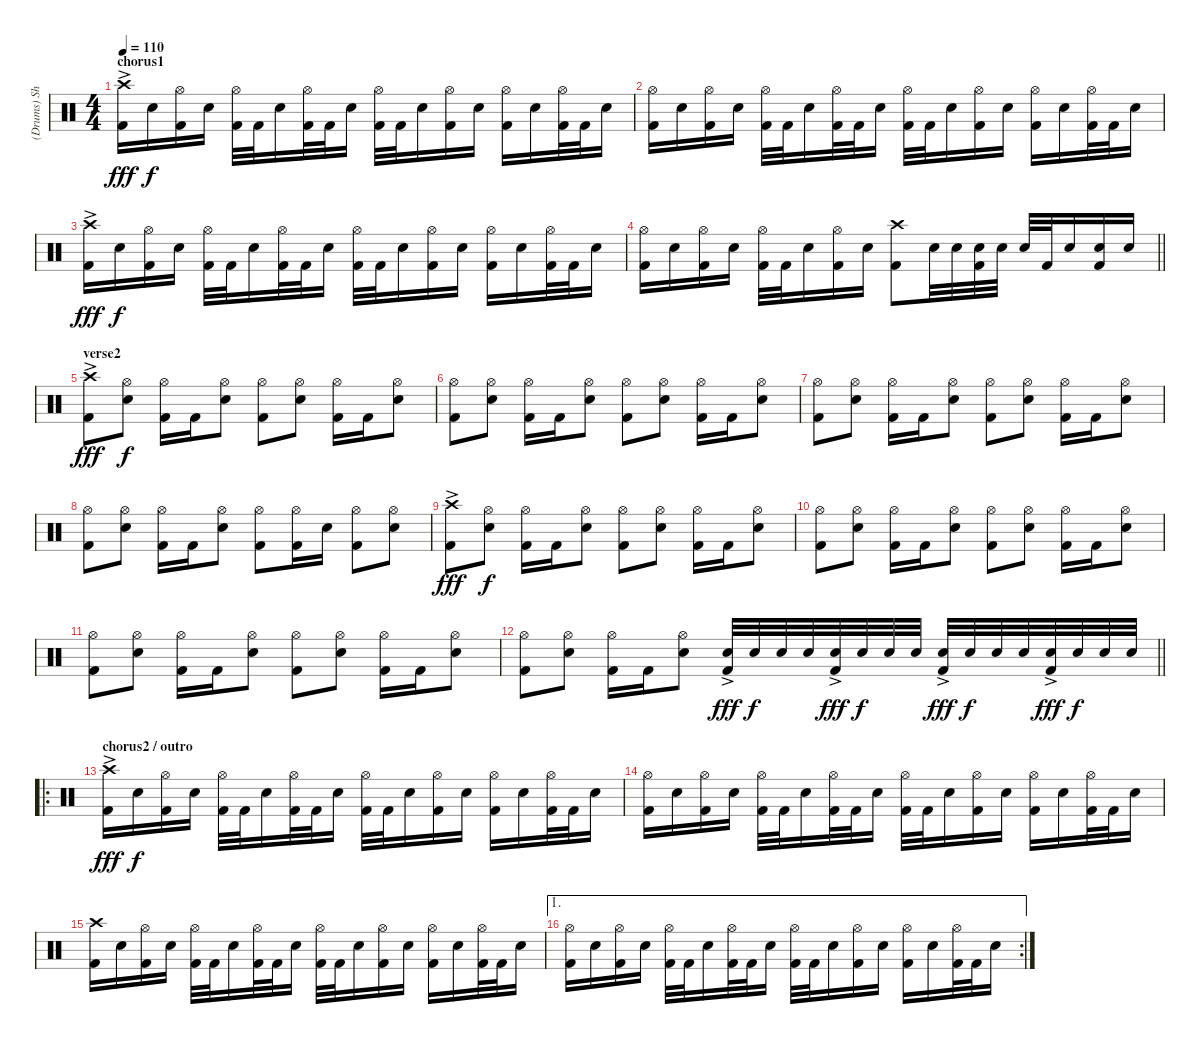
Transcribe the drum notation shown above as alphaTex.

\track ("(Drums) Shinya" "(Drums) Sh") {instrument percussion}
\staff {score}
\articulation defaults
\ts (4 4)
\section ("" "chorus1")
\tempo 110
\clef neutral
\ks c
("Crash high (hit)"{ac} "Kick (hit) 2").16{dy fff} "Snare (hit) 2".16{dy f} ("Hi-Hat (open)" "Kick (hit) 2").16 "Snare (hit) 2".16 ("Hi-Hat (open)" "Kick (hit) 2").32 "Kick (hit) 2".32 "Snare (hit) 2".16 ("Hi-Hat (open)" "Kick (hit) 2").32 "Kick (hit) 2".32 "Snare (hit) 2".16 ("Hi-Hat (open)" "Kick (hit) 2").32 "Kick (hit) 2".32 "Snare (hit) 2".16 ("Hi-Hat (open)" "Kick (hit) 2").16 "Snare (hit) 2".16 ("Hi-Hat (open)" "Kick (hit) 2").16 "Snare (hit) 2".16 ("Hi-Hat (open)" "Kick (hit) 2").32 "Kick (hit) 2".32 "Snare (hit) 2".16 |
("Hi-Hat (open)" "Kick (hit) 2").16 "Snare (hit) 2".16 ("Hi-Hat (open)" "Kick (hit) 2").16 "Snare (hit) 2".16 ("Hi-Hat (open)" "Kick (hit) 2").32 "Kick (hit) 2".32 "Snare (hit) 2".16 ("Hi-Hat (open)" "Kick (hit) 2").32 "Kick (hit) 2".32 "Snare (hit) 2".16 ("Hi-Hat (open)" "Kick (hit) 2").32 "Kick (hit) 2".32 "Snare (hit) 2".16 ("Hi-Hat (open)" "Kick (hit) 2").16 "Snare (hit) 2".16 ("Hi-Hat (open)" "Kick (hit) 2").16 "Snare (hit) 2".16 ("Hi-Hat (open)" "Kick (hit) 2").32 "Kick (hit) 2".32 "Snare (hit) 2".16 |
("Crash high (hit)"{ac} "Kick (hit) 2").16{dy fff} "Snare (hit) 2".16{dy f} ("Hi-Hat (open)" "Kick (hit) 2").16 "Snare (hit) 2".16 ("Hi-Hat (open)" "Kick (hit) 2").32 "Kick (hit) 2".32 "Snare (hit) 2".16 ("Hi-Hat (open)" "Kick (hit) 2").32 "Kick (hit) 2".32 "Snare (hit) 2".16 ("Hi-Hat (open)" "Kick (hit) 2").32 "Kick (hit) 2".32 "Snare (hit) 2".16 ("Hi-Hat (open)" "Kick (hit) 2").16 "Snare (hit) 2".16 ("Hi-Hat (open)" "Kick (hit) 2").16 "Snare (hit) 2".16 ("Hi-Hat (open)" "Kick (hit) 2").32 "Kick (hit) 2".32 "Snare (hit) 2".16 |
\barLineRight lightlight
("Hi-Hat (open)" "Kick (hit) 2").16 "Snare (hit) 2".16 ("Hi-Hat (open)" "Kick (hit) 2").16 "Snare (hit) 2".16 ("Hi-Hat (open)" "Kick (hit) 2").32 "Kick (hit) 2".32 "Snare (hit) 2".16 ("Hi-Hat (open)" "Kick (hit) 2").16 "Snare (hit) 2".16 ("Crash high (hit)" "Kick (hit) 2").8 "Snare (hit) 2".32 "Snare (hit) 2".32 ("Snare (hit) 2" "Kick (hit) 2").32 "Snare (hit) 2".32 "Snare (hit) 2".32 "Kick (hit) 2".32 "Snare (hit) 2".16 ("Snare (hit) 2" "Kick (hit) 2").16 "Snare (hit) 2".16 |
\section ("" "verse2")
("Crash high (hit)"{ac} "Kick (hit) 2").8{dy fff} ("Hi-Hat (open)" "Snare (hit) 2").8{dy f} ("Hi-Hat (open)" "Kick (hit) 2").16 "Kick (hit) 2".16 ("Hi-Hat (open)" "Snare (hit) 2").8 ("Hi-Hat (open)" "Kick (hit) 2").8 ("Hi-Hat (open)" "Snare (hit) 2").8 ("Hi-Hat (open)" "Kick (hit) 2").16 "Kick (hit) 2".16 ("Hi-Hat (open)" "Snare (hit) 2").8 |
("Hi-Hat (open)" "Kick (hit) 2").8 ("Hi-Hat (open)" "Snare (hit) 2").8 ("Hi-Hat (open)" "Kick (hit) 2").16 "Kick (hit) 2".16 ("Hi-Hat (open)" "Snare (hit) 2").8 ("Hi-Hat (open)" "Kick (hit) 2").8 ("Hi-Hat (open)" "Snare (hit) 2").8 ("Hi-Hat (open)" "Kick (hit) 2").16 "Kick (hit) 2".16 ("Hi-Hat (open)" "Snare (hit) 2").8 |
("Hi-Hat (open)" "Kick (hit) 2").8 ("Hi-Hat (open)" "Snare (hit) 2").8 ("Hi-Hat (open)" "Kick (hit) 2").16 "Kick (hit) 2".16 ("Hi-Hat (open)" "Snare (hit) 2").8 ("Hi-Hat (open)" "Kick (hit) 2").8 ("Hi-Hat (open)" "Snare (hit) 2").8 ("Hi-Hat (open)" "Kick (hit) 2").16 "Kick (hit) 2".16 ("Hi-Hat (open)" "Snare (hit) 2").8 |
("Hi-Hat (open)" "Kick (hit) 2").8 ("Hi-Hat (open)" "Snare (hit) 2").8 ("Hi-Hat (open)" "Kick (hit) 2").16 "Kick (hit) 2".16 ("Hi-Hat (open)" "Snare (hit) 2").8 ("Hi-Hat (open)" "Kick (hit) 2").8 ("Hi-Hat (open)" "Kick (hit) 2").16 "Snare (hit) 2".16 ("Hi-Hat (open)" "Kick (hit) 2").8 ("Hi-Hat (open)" "Snare (hit) 2").8 |
("Crash high (hit)"{ac} "Kick (hit) 2").8{dy fff} ("Hi-Hat (open)" "Snare (hit) 2").8{dy f} ("Hi-Hat (open)" "Kick (hit) 2").16 "Kick (hit) 2".16 ("Hi-Hat (open)" "Snare (hit) 2").8 ("Hi-Hat (open)" "Kick (hit) 2").8 ("Hi-Hat (open)" "Snare (hit) 2").8 ("Hi-Hat (open)" "Kick (hit) 2").16 "Kick (hit) 2".16 ("Hi-Hat (open)" "Snare (hit) 2").8 |
("Hi-Hat (open)" "Kick (hit) 2").8 ("Hi-Hat (open)" "Snare (hit) 2").8 ("Hi-Hat (open)" "Kick (hit) 2").16 "Kick (hit) 2".16 ("Hi-Hat (open)" "Snare (hit) 2").8 ("Hi-Hat (open)" "Kick (hit) 2").8 ("Hi-Hat (open)" "Snare (hit) 2").8 ("Hi-Hat (open)" "Kick (hit) 2").16 "Kick (hit) 2".16 ("Hi-Hat (open)" "Snare (hit) 2").8 |
("Hi-Hat (open)" "Kick (hit) 2").8 ("Hi-Hat (open)" "Snare (hit) 2").8 ("Hi-Hat (open)" "Kick (hit) 2").16 "Kick (hit) 2".16 ("Hi-Hat (open)" "Snare (hit) 2").8 ("Hi-Hat (open)" "Kick (hit) 2").8 ("Hi-Hat (open)" "Snare (hit) 2").8 ("Hi-Hat (open)" "Kick (hit) 2").16 "Kick (hit) 2".16 ("Hi-Hat (open)" "Snare (hit) 2").8 |
\barLineRight lightlight
("Hi-Hat (open)" "Kick (hit) 2").8 ("Hi-Hat (open)" "Snare (hit) 2").8 ("Hi-Hat (open)" "Kick (hit) 2").16 "Kick (hit) 2".16 ("Hi-Hat (open)" "Snare (hit) 2").8 ("Snare (hit) 2"{ac} "Kick (hit) 2").32{dy fff} "Snare (hit) 2".32{dy f} "Snare (hit) 2".32 "Snare (hit) 2".32 ("Snare (hit) 2"{ac} "Kick (hit) 2").32{dy fff} "Snare (hit) 2".32{dy f} "Snare (hit) 2".32 "Snare (hit) 2".32 ("Snare (hit) 2"{ac} "Kick (hit) 2").32{dy fff} "Snare (hit) 2".32{dy f} "Snare (hit) 2".32 "Snare (hit) 2".32 ("Snare (hit) 2"{ac} "Kick (hit) 2").32{dy fff} "Snare (hit) 2".32{dy f} "Snare (hit) 2".32 "Snare (hit) 2".32 |
\ro
\section ("" "chorus2 / outro")
("Crash high (hit)"{ac} "Kick (hit) 2").16{dy fff} "Snare (hit) 2".16{dy f} ("Hi-Hat (open)" "Kick (hit) 2").16 "Snare (hit) 2".16 ("Hi-Hat (open)" "Kick (hit) 2").32 "Kick (hit) 2".32 "Snare (hit) 2".16 ("Hi-Hat (open)" "Kick (hit) 2").32 "Kick (hit) 2".32 "Snare (hit) 2".16 ("Hi-Hat (open)" "Kick (hit) 2").32 "Kick (hit) 2".32 "Snare (hit) 2".16 ("Hi-Hat (open)" "Kick (hit) 2").16 "Snare (hit) 2".16 ("Hi-Hat (open)" "Kick (hit) 2").16 "Snare (hit) 2".16 ("Hi-Hat (open)" "Kick (hit) 2").32 "Kick (hit) 2".32 "Snare (hit) 2".16 |
("Hi-Hat (open)" "Kick (hit) 2").16 "Snare (hit) 2".16 ("Hi-Hat (open)" "Kick (hit) 2").16 "Snare (hit) 2".16 ("Hi-Hat (open)" "Kick (hit) 2").32 "Kick (hit) 2".32 "Snare (hit) 2".16 ("Hi-Hat (open)" "Kick (hit) 2").32 "Kick (hit) 2".32 "Snare (hit) 2".16 ("Hi-Hat (open)" "Kick (hit) 2").32 "Kick (hit) 2".32 "Snare (hit) 2".16 ("Hi-Hat (open)" "Kick (hit) 2").16 "Snare (hit) 2".16 ("Hi-Hat (open)" "Kick (hit) 2").16 "Snare (hit) 2".16 ("Hi-Hat (open)" "Kick (hit) 2").32 "Kick (hit) 2".32 "Snare (hit) 2".16 |
("Crash high (hit)" "Kick (hit) 2").16 "Snare (hit) 2".16 ("Hi-Hat (open)" "Kick (hit) 2").16 "Snare (hit) 2".16 ("Hi-Hat (open)" "Kick (hit) 2").32 "Kick (hit) 2".32 "Snare (hit) 2".16 ("Hi-Hat (open)" "Kick (hit) 2").32 "Kick (hit) 2".32 "Snare (hit) 2".16 ("Hi-Hat (open)" "Kick (hit) 2").32 "Kick (hit) 2".32 "Snare (hit) 2".16 ("Hi-Hat (open)" "Kick (hit) 2").16 "Snare (hit) 2".16 ("Hi-Hat (open)" "Kick (hit) 2").16 "Snare (hit) 2".16 ("Hi-Hat (open)" "Kick (hit) 2").32 "Kick (hit) 2".32 "Snare (hit) 2".16 |
\ae 1
\rc 2
("Hi-Hat (open)" "Kick (hit) 2").16 "Snare (hit) 2".16 ("Hi-Hat (open)" "Kick (hit) 2").16 "Snare (hit) 2".16 ("Hi-Hat (open)" "Kick (hit) 2").32 "Kick (hit) 2".32 "Snare (hit) 2".16 ("Hi-Hat (open)" "Kick (hit) 2").32 "Kick (hit) 2".32 "Snare (hit) 2".16 ("Hi-Hat (open)" "Kick (hit) 2").32 "Kick (hit) 2".32 "Snare (hit) 2".16 ("Hi-Hat (open)" "Kick (hit) 2").16 "Snare (hit) 2".16 ("Hi-Hat (open)" "Kick (hit) 2").16 "Snare (hit) 2".16 ("Hi-Hat (open)" "Kick (hit) 2").32 "Kick (hit) 2".32 "Snare (hit) 2".16
